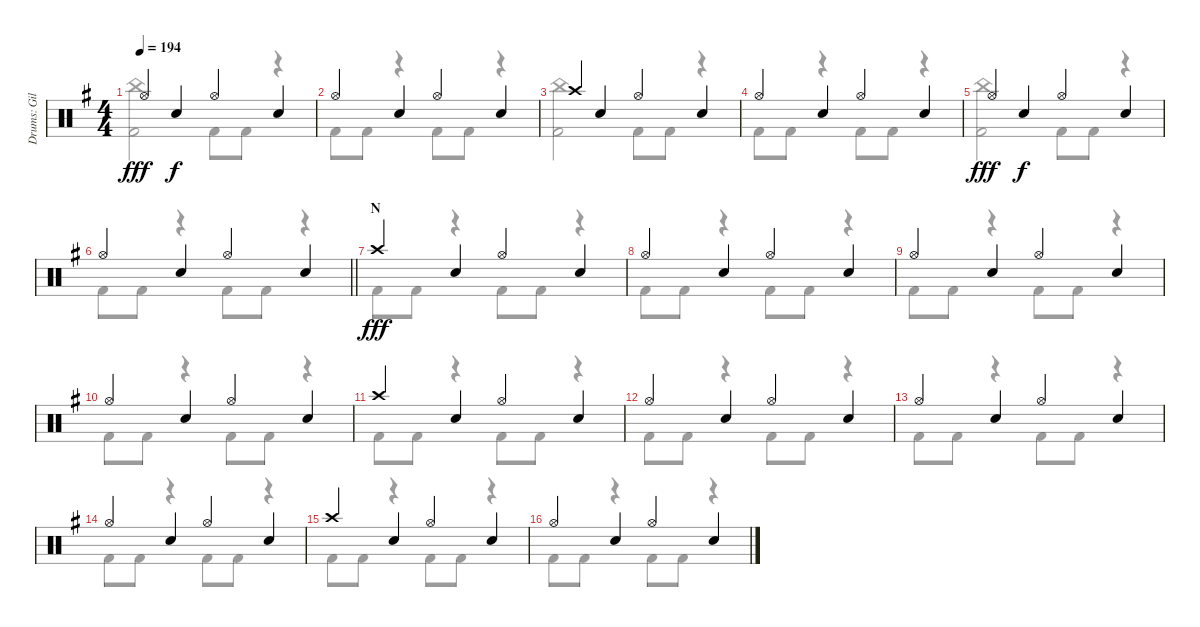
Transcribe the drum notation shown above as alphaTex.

\track ("Drums: Gil" "Drums: Gil") {instrument percussion}
\staff {score}
\articulation defaults
\voice
\ts (4 4)
\tempo 194
\clef neutral
\ks g "Hi-Hat (open)".4{dy fff} "Snare (hit) 2".4{dy f} "Hi-Hat (open)".4 "Snare (hit) 2".4
|
"Hi-Hat (open)".4 "Snare (hit) 2".4 "Hi-Hat (open)".4 "Snare (hit) 2".4 |
"Crash high (hit)".4 "Snare (hit) 2".4 "Hi-Hat (open)".4 "Snare (hit) 2".4 |
"Hi-Hat (open)".4 "Snare (hit) 2".4 "Hi-Hat (open)".4 "Snare (hit) 2".4 |
"Hi-Hat (open)".4{dy fff} "Snare (hit) 2".4{dy f} "Hi-Hat (open)".4 "Snare (hit) 2".4 |
\barLineRight lightlight "Hi-Hat (open)".4 "Snare (hit) 2".4 "Hi-Hat (open)".4 "Snare (hit) 2".4
|
\section ("" "N")
"Crash high (hit)".4{dy fff} "Snare (hit) 2".4 "Hi-Hat (open)".4 "Snare (hit) 2".4 |
"Hi-Hat (open)".4 "Snare (hit) 2".4 "Hi-Hat (open)".4 "Snare (hit) 2".4 |
"Hi-Hat (open)".4 "Snare (hit) 2".4 "Hi-Hat (open)".4 "Snare (hit) 2".4 |
"Hi-Hat (open)".4 "Snare (hit) 2".4 "Hi-Hat (open)".4 "Snare (hit) 2".4 |
"Crash high (hit)".4 "Snare (hit) 2".4 "Hi-Hat (open)".4 "Snare (hit) 2".4 |
"Hi-Hat (open)".4 "Snare (hit) 2".4 "Hi-Hat (open)".4 "Snare (hit) 2".4 |
"Hi-Hat (open)".4 "Snare (hit) 2".4 "Hi-Hat (open)".4 "Snare (hit) 2".4 |
"Hi-Hat (open)".4 "Snare (hit) 2".4 "Hi-Hat (open)".4 "Snare (hit) 2".4 |
"Crash high (hit)".4 "Snare (hit) 2".4 "Hi-Hat (open)".4 "Snare (hit) 2".4 |
"Hi-Hat (open)".4 "Snare (hit) 2".4 "Hi-Hat (open)".4 "Snare (hit) 2".4
\voice
\clef neutral
\ottava regular
\simile none
\ks g
("China (hit)" "Kick (hit) 2").2{dy fff} "Kick (hit) 2".8 "Kick (hit) 2".8{beam merge} r.4 |
"Kick (hit) 2".8 "Kick (hit) 2".8 r.4 "Kick (hit) 2".8 "Kick (hit) 2".8 r.4 |
("China (hit)" "Kick (hit) 2").2 "Kick (hit) 2".8 "Kick (hit) 2".8{beam merge} r.4 |
"Kick (hit) 2".8 "Kick (hit) 2".8 r.4 "Kick (hit) 2".8 "Kick (hit) 2".8 r.4 |
("China (hit)" "Kick (hit) 2").2 "Kick (hit) 2".8 "Kick (hit) 2".8{beam merge} r.4 |
\barLineRight lightlight "Kick (hit) 2".8 "Kick (hit) 2".8
r.4 "Kick (hit) 2".8 "Kick (hit) 2".8 r.4 |
"Kick (hit) 2".8 "Kick (hit) 2".8 r.4 "Kick (hit) 2".8 "Kick (hit) 2".8 r.4 |
"Kick (hit) 2".8 "Kick (hit) 2".8 r.4 "Kick (hit) 2".8 "Kick (hit) 2".8 r.4 |
"Kick (hit) 2".8 "Kick (hit) 2".8 r.4 "Kick (hit) 2".8 "Kick (hit) 2".8 r.4 |
"Kick (hit) 2".8 "Kick (hit) 2".8 r.4 "Kick (hit) 2".8 "Kick (hit) 2".8 r.4 |
"Kick (hit) 2".8 "Kick (hit) 2".8 r.4 "Kick (hit) 2".8 "Kick (hit) 2".8 r.4 |
"Kick (hit) 2".8 "Kick (hit) 2".8 r.4 "Kick (hit) 2".8 "Kick (hit) 2".8 r.4 |
"Kick (hit) 2".8 "Kick (hit) 2".8 r.4 "Kick (hit) 2".8 "Kick (hit) 2".8 r.4 |
"Kick (hit) 2".8 "Kick (hit) 2".8 r.4 "Kick (hit) 2".8 "Kick (hit) 2".8 r.4 |
"Kick (hit) 2".8 "Kick (hit) 2".8 r.4 "Kick (hit) 2".8 "Kick (hit) 2".8 r.4 |
"Kick (hit) 2".8 "Kick (hit) 2".8 r.4 "Kick (hit) 2".8 "Kick (hit) 2".8 r.4
